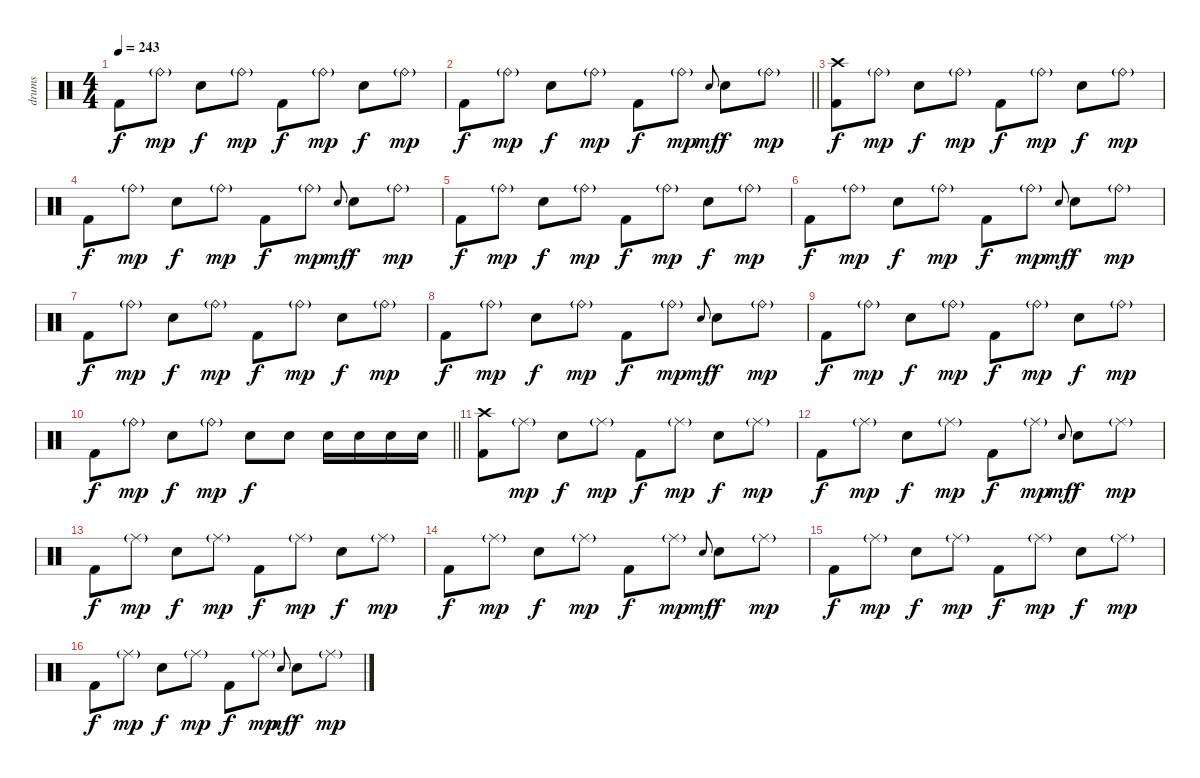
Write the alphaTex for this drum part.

\track ("drums" "drums") {instrument percussion}
\staff {score}
\articulation defaults
\ts (4 4)
\tempo 243
\clef neutral
\ks c "Kick (hit) 2".8{dy f} "Ride (bell)"{g}.8{dy mp} "Electric Snare (hit)".8{dy f} "Ride (bell)"{g}.8{dy mp} "Kick (hit) 2".8{dy f} "Ride (bell)"{g}.8{dy mp} "Electric Snare (hit)".8{dy f} "Ride (bell)"{g}.8{dy mp}
|
\barLineRight lightlight "Kick (hit) 2".8{dy f} "Ride (bell)"{g}.8{dy mp} "Electric Snare (hit)".8{dy f} "Ride (bell)"{g}.8{dy mp} "Kick (hit) 2".8{dy f} "Ride (bell)"{g}.8{dy mp} "Electric Snare (hit)"{x}.8{gr onbeat dy mf} "Electric Snare (hit)".8{dy f} "Ride (bell)"{g}.8{dy mp}
|
("Kick (hit) 2" "Crash high (hit)").8{dy f} "Ride (bell)"{g}.8{dy mp} "Electric Snare (hit)".8{dy f} "Ride (bell)"{g}.8{dy mp} "Kick (hit) 2".8{dy f} "Ride (bell)"{g}.8{dy mp} "Electric Snare (hit)".8{dy f} "Ride (bell)"{g}.8{dy mp} |
"Kick (hit) 2".8{dy f} "Ride (bell)"{g}.8{dy mp} "Electric Snare (hit)".8{dy f} "Ride (bell)"{g}.8{dy mp} "Kick (hit) 2".8{dy f} "Ride (bell)"{g}.8{dy mp} "Electric Snare (hit)"{x}.8{gr onbeat dy mf} "Electric Snare (hit)".8{dy f} "Ride (bell)"{g}.8{dy mp} |
"Kick (hit) 2".8{dy f} "Ride (bell)"{g}.8{dy mp} "Electric Snare (hit)".8{dy f} "Ride (bell)"{g}.8{dy mp} "Kick (hit) 2".8{dy f} "Ride (bell)"{g}.8{dy mp} "Electric Snare (hit)".8{dy f} "Ride (bell)"{g}.8{dy mp} |
"Kick (hit) 2".8{dy f} "Ride (bell)"{g}.8{dy mp} "Electric Snare (hit)".8{dy f} "Ride (bell)"{g}.8{dy mp} "Kick (hit) 2".8{dy f} "Ride (bell)"{g}.8{dy mp} "Electric Snare (hit)"{x}.8{gr onbeat dy mf} "Electric Snare (hit)".8{dy f} "Ride (bell)"{g}.8{dy mp} |
"Kick (hit) 2".8{dy f} "Ride (bell)"{g}.8{dy mp} "Electric Snare (hit)".8{dy f} "Ride (bell)"{g}.8{dy mp} "Kick (hit) 2".8{dy f} "Ride (bell)"{g}.8{dy mp} "Electric Snare (hit)".8{dy f} "Ride (bell)"{g}.8{dy mp} |
"Kick (hit) 2".8{dy f} "Ride (bell)"{g}.8{dy mp} "Electric Snare (hit)".8{dy f} "Ride (bell)"{g}.8{dy mp} "Kick (hit) 2".8{dy f} "Ride (bell)"{g}.8{dy mp} "Electric Snare (hit)"{x}.8{gr onbeat dy mf} "Electric Snare (hit)".8{dy f} "Ride (bell)"{g}.8{dy mp} |
"Kick (hit) 2".8{dy f} "Ride (bell)"{g}.8{dy mp} "Electric Snare (hit)".8{dy f} "Ride (bell)"{g}.8{dy mp} "Kick (hit) 2".8{dy f} "Ride (bell)"{g}.8{dy mp} "Electric Snare (hit)".8{dy f} "Ride (bell)"{g}.8{dy mp} |
\barLineRight lightlight "Kick (hit) 2".8{dy f} "Ride (bell)"{g}.8{dy mp} "Electric Snare (hit)".8{dy f} "Ride (bell)"{g}.8{dy mp} "Electric Snare (hit)".8{dy f} "Electric Snare (hit)".8 "Electric Snare (hit)".16 "Electric Snare (hit)".16 "Electric Snare (hit)".16 "Electric Snare (hit)".16
|
("Kick (hit) 2" "Crash high (hit)").8 "Ride (middle)"{g}.8{dy mp} "Electric Snare (hit)".8{dy f} "Ride (middle)"{g}.8{dy mp} "Kick (hit) 2".8{dy f} "Ride (middle)"{g}.8{dy mp} "Electric Snare (hit)".8{dy f} "Ride (middle)"{g}.8{dy mp} |
"Kick (hit) 2".8{dy f} "Ride (middle)"{g}.8{dy mp} "Electric Snare (hit)".8{dy f} "Ride (middle)"{g}.8{dy mp} "Kick (hit) 2".8{dy f} "Ride (middle)"{g}.8{dy mp} "Electric Snare (hit)"{x}.8{gr onbeat dy mf} "Electric Snare (hit)".8{dy f} "Ride (middle)"{g}.8{dy mp} |
"Kick (hit) 2".8{dy f} "Ride (middle)"{g}.8{dy mp} "Electric Snare (hit)".8{dy f} "Ride (middle)"{g}.8{dy mp} "Kick (hit) 2".8{dy f} "Ride (middle)"{g}.8{dy mp} "Electric Snare (hit)".8{dy f} "Ride (middle)"{g}.8{dy mp} |
"Kick (hit) 2".8{dy f} "Ride (middle)"{g}.8{dy mp} "Electric Snare (hit)".8{dy f} "Ride (middle)"{g}.8{dy mp} "Kick (hit) 2".8{dy f} "Ride (middle)"{g}.8{dy mp} "Electric Snare (hit)"{x}.8{gr onbeat dy mf} "Electric Snare (hit)".8{dy f} "Ride (middle)"{g}.8{dy mp} |
"Kick (hit) 2".8{dy f} "Ride (middle)"{g}.8{dy mp} "Electric Snare (hit)".8{dy f} "Ride (middle)"{g}.8{dy mp} "Kick (hit) 2".8{dy f} "Ride (middle)"{g}.8{dy mp} "Electric Snare (hit)".8{dy f} "Ride (middle)"{g}.8{dy mp} |
"Kick (hit) 2".8{dy f} "Ride (middle)"{g}.8{dy mp} "Electric Snare (hit)".8{dy f} "Ride (middle)"{g}.8{dy mp} "Kick (hit) 2".8{dy f} "Ride (middle)"{g}.8{dy mp} "Electric Snare (hit)"{x}.8{gr onbeat dy mf} "Electric Snare (hit)".8{dy f} "Ride (middle)"{g}.8{dy mp}
